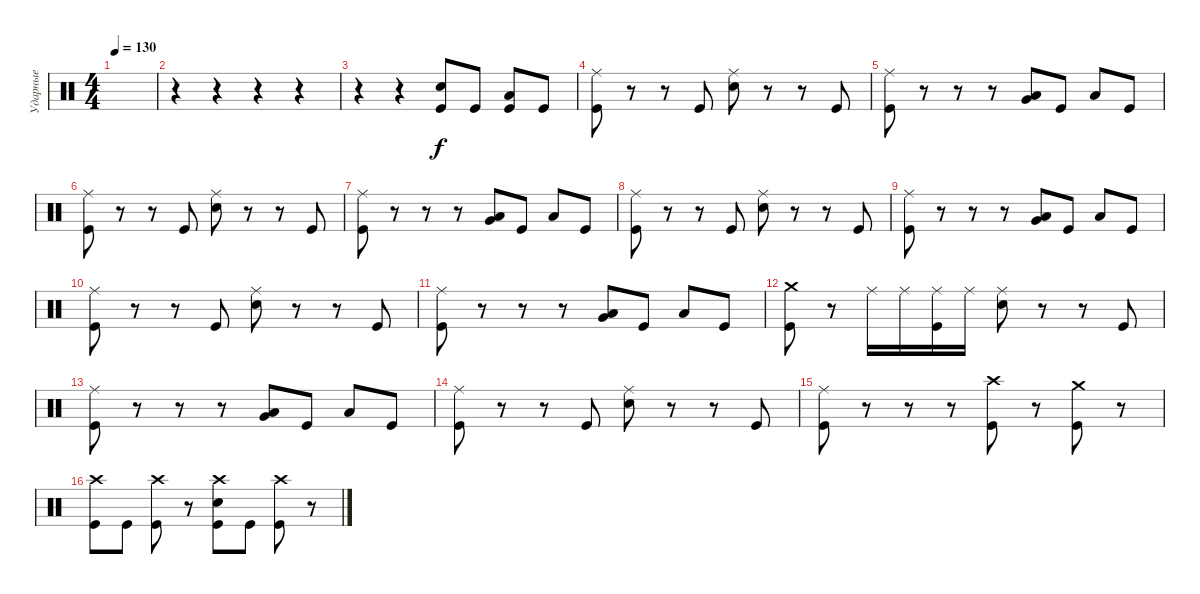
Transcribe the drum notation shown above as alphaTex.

\track ("Ударные" "Ударные") {instrument percussion}
\staff {score}
\articulation defaults
\ts (4 4)
\tempo 130
\clef neutral
\ks c
|
r.4 r.4 r.4 r.4 |
r.4 r.4 ("Electric Snare (hit)" "Kick (hit)").8 "Kick (hit)".8 ("Low Floor Tom (hit)" "Kick (hit)").8 "Kick (hit)".8 |
("Ride (middle)" "Kick (hit)").8 r.8 r.8 "Kick (hit)".8 ("Ride (middle)" "Electric Snare (hit)").8 r.8 r.8 "Kick (hit)".8 |
("Ride (middle)" "Kick (hit)").8 r.8 r.8 r.8 ("Very Low Tom (hit)" "Low Floor Tom (hit)").8 "Kick (hit)".8 "Low Floor Tom (hit)".8 "Kick (hit)".8 |
("Ride (middle)" "Kick (hit)").8 r.8 r.8 "Kick (hit)".8 ("Ride (middle)" "Electric Snare (hit)").8 r.8 r.8 "Kick (hit)".8 |
("Ride (middle)" "Kick (hit)").8 r.8 r.8 r.8 ("Very Low Tom (hit)" "Low Floor Tom (hit)").8 "Kick (hit)".8 "Low Floor Tom (hit)".8 "Kick (hit)".8 |
("Ride (middle)" "Kick (hit)").8 r.8 r.8 "Kick (hit)".8 ("Ride (middle)" "Electric Snare (hit)").8 r.8 r.8 "Kick (hit)".8 |
("Ride (middle)" "Kick (hit)").8 r.8 r.8 r.8 ("Very Low Tom (hit)" "Low Floor Tom (hit)").8 "Kick (hit)".8 "Low Floor Tom (hit)".8 "Kick (hit)".8 |
("Ride (middle)" "Kick (hit)").8 r.8 r.8 "Kick (hit)".8 ("Ride (middle)" "Electric Snare (hit)").8 r.8 r.8 "Kick (hit)".8 |
("Ride (middle)" "Kick (hit)").8 r.8 r.8 r.8 ("Very Low Tom (hit)" "Low Floor Tom (hit)").8 "Kick (hit)".8 "Low Floor Tom (hit)".8 "Kick (hit)".8 |
("Crash medium (hit)" "Kick (hit)").8 r.8 "Ride (middle)".16 "Ride (middle)".16 ("Ride (middle)" "Kick (hit)").16 "Ride (middle)".16 ("Ride (middle)" "Electric Snare (hit)").8 r.8 r.8 "Kick (hit)".8 |
("Ride (middle)" "Kick (hit)").8 r.8 r.8 r.8 ("Very Low Tom (hit)" "Low Floor Tom (hit)").8 "Kick (hit)".8 "Low Floor Tom (hit)".8 "Kick (hit)".8 |
("Ride (middle)" "Kick (hit)").8 r.8 r.8 "Kick (hit)".8 ("Ride (middle)" "Electric Snare (hit)").8 r.8 r.8 "Kick (hit)".8 |
("Ride (middle)" "Kick (hit)").8 r.8 r.8 r.8 ("Crash high (hit)" "Kick (hit)").8 r.8 ("Crash medium (hit)" "Kick (hit)").8 r.8 |
("Crash high (hit)" "Kick (hit)").8 "Kick (hit)".8 ("Crash high (hit)" "Kick (hit)").8 r.8 ("Crash high (hit)" "Electric Snare (hit)" "Kick (hit)").8 "Kick (hit)".8 ("Crash high (hit)" "Kick (hit)").8 r.8
